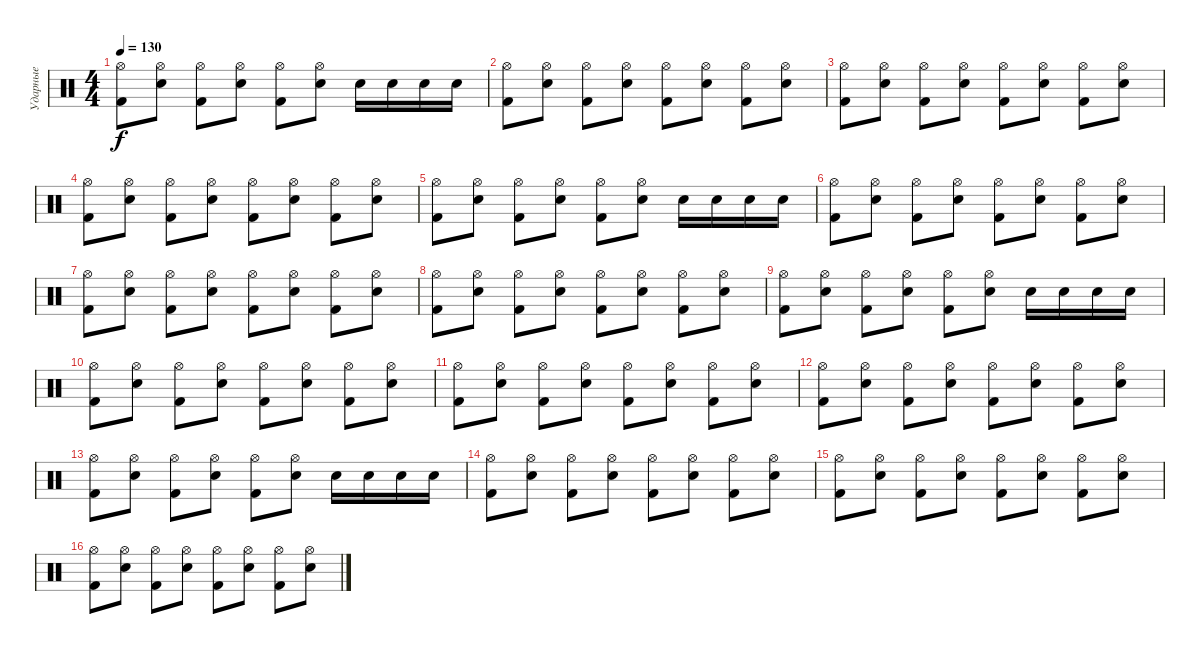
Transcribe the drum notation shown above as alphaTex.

\track ("Ударные" "Ударные") {instrument percussion}
\staff {score}
\articulation defaults
\ts (4 4)
\tempo 130
\clef neutral
\ks c
("Hi-Hat (open)" "Kick (hit) 2").8{dy f} ("Hi-Hat (open)" "Electric Snare (hit)").8 ("Hi-Hat (open)" "Kick (hit) 2").8 ("Hi-Hat (open)" "Electric Snare (hit)").8 ("Hi-Hat (open)" "Kick (hit) 2").8 ("Hi-Hat (open)" "Electric Snare (hit)").8 "Electric Snare (hit)".16 "Electric Snare (hit)".16 "Electric Snare (hit)".16 "Electric Snare (hit)".16 |
("Hi-Hat (open)" "Kick (hit) 2").8 ("Hi-Hat (open)" "Electric Snare (hit)").8 ("Hi-Hat (open)" "Kick (hit) 2").8 ("Hi-Hat (open)" "Electric Snare (hit)").8 ("Hi-Hat (open)" "Kick (hit) 2").8 ("Hi-Hat (open)" "Electric Snare (hit)").8 ("Hi-Hat (open)" "Kick (hit) 2").8 ("Hi-Hat (open)" "Electric Snare (hit)").8 |
("Hi-Hat (open)" "Kick (hit) 2").8 ("Hi-Hat (open)" "Electric Snare (hit)").8 ("Hi-Hat (open)" "Kick (hit) 2").8 ("Hi-Hat (open)" "Electric Snare (hit)").8 ("Hi-Hat (open)" "Kick (hit) 2").8 ("Hi-Hat (open)" "Electric Snare (hit)").8 ("Hi-Hat (open)" "Kick (hit) 2").8 ("Hi-Hat (open)" "Electric Snare (hit)").8 |
("Hi-Hat (open)" "Kick (hit) 2").8 ("Hi-Hat (open)" "Electric Snare (hit)").8 ("Hi-Hat (open)" "Kick (hit) 2").8 ("Hi-Hat (open)" "Electric Snare (hit)").8 ("Hi-Hat (open)" "Kick (hit) 2").8 ("Hi-Hat (open)" "Electric Snare (hit)").8 ("Hi-Hat (open)" "Kick (hit) 2").8 ("Hi-Hat (open)" "Electric Snare (hit)").8 |
("Hi-Hat (open)" "Kick (hit) 2").8 ("Hi-Hat (open)" "Electric Snare (hit)").8 ("Hi-Hat (open)" "Kick (hit) 2").8 ("Hi-Hat (open)" "Electric Snare (hit)").8 ("Hi-Hat (open)" "Kick (hit) 2").8 ("Hi-Hat (open)" "Electric Snare (hit)").8 "Electric Snare (hit)".16 "Electric Snare (hit)".16 "Electric Snare (hit)".16 "Electric Snare (hit)".16 |
("Hi-Hat (open)" "Kick (hit) 2").8 ("Hi-Hat (open)" "Electric Snare (hit)").8 ("Hi-Hat (open)" "Kick (hit) 2").8 ("Hi-Hat (open)" "Electric Snare (hit)").8 ("Hi-Hat (open)" "Kick (hit) 2").8 ("Hi-Hat (open)" "Electric Snare (hit)").8 ("Hi-Hat (open)" "Kick (hit) 2").8 ("Hi-Hat (open)" "Electric Snare (hit)").8 |
("Hi-Hat (open)" "Kick (hit) 2").8 ("Hi-Hat (open)" "Electric Snare (hit)").8 ("Hi-Hat (open)" "Kick (hit) 2").8 ("Hi-Hat (open)" "Electric Snare (hit)").8 ("Hi-Hat (open)" "Kick (hit) 2").8 ("Hi-Hat (open)" "Electric Snare (hit)").8 ("Hi-Hat (open)" "Kick (hit) 2").8 ("Hi-Hat (open)" "Electric Snare (hit)").8 |
("Hi-Hat (open)" "Kick (hit) 2").8 ("Hi-Hat (open)" "Electric Snare (hit)").8 ("Hi-Hat (open)" "Kick (hit) 2").8 ("Hi-Hat (open)" "Electric Snare (hit)").8 ("Hi-Hat (open)" "Kick (hit) 2").8 ("Hi-Hat (open)" "Electric Snare (hit)").8 ("Hi-Hat (open)" "Kick (hit) 2").8 ("Hi-Hat (open)" "Electric Snare (hit)").8 |
("Hi-Hat (open)" "Kick (hit) 2").8 ("Hi-Hat (open)" "Electric Snare (hit)").8 ("Hi-Hat (open)" "Kick (hit) 2").8 ("Hi-Hat (open)" "Electric Snare (hit)").8 ("Hi-Hat (open)" "Kick (hit) 2").8 ("Hi-Hat (open)" "Electric Snare (hit)").8 "Electric Snare (hit)".16 "Electric Snare (hit)".16 "Electric Snare (hit)".16 "Electric Snare (hit)".16 |
("Hi-Hat (open)" "Kick (hit) 2").8 ("Hi-Hat (open)" "Electric Snare (hit)").8 ("Hi-Hat (open)" "Kick (hit) 2").8 ("Hi-Hat (open)" "Electric Snare (hit)").8 ("Hi-Hat (open)" "Kick (hit) 2").8 ("Hi-Hat (open)" "Electric Snare (hit)").8 ("Hi-Hat (open)" "Kick (hit) 2").8 ("Hi-Hat (open)" "Electric Snare (hit)").8 |
("Hi-Hat (open)" "Kick (hit) 2").8 ("Hi-Hat (open)" "Electric Snare (hit)").8 ("Hi-Hat (open)" "Kick (hit) 2").8 ("Hi-Hat (open)" "Electric Snare (hit)").8 ("Hi-Hat (open)" "Kick (hit) 2").8 ("Hi-Hat (open)" "Electric Snare (hit)").8 ("Hi-Hat (open)" "Kick (hit) 2").8 ("Hi-Hat (open)" "Electric Snare (hit)").8 |
("Hi-Hat (open)" "Kick (hit) 2").8 ("Hi-Hat (open)" "Electric Snare (hit)").8 ("Hi-Hat (open)" "Kick (hit) 2").8 ("Hi-Hat (open)" "Electric Snare (hit)").8 ("Hi-Hat (open)" "Kick (hit) 2").8 ("Hi-Hat (open)" "Electric Snare (hit)").8 ("Hi-Hat (open)" "Kick (hit) 2").8 ("Hi-Hat (open)" "Electric Snare (hit)").8 |
("Hi-Hat (open)" "Kick (hit) 2").8 ("Hi-Hat (open)" "Electric Snare (hit)").8 ("Hi-Hat (open)" "Kick (hit) 2").8 ("Hi-Hat (open)" "Electric Snare (hit)").8 ("Hi-Hat (open)" "Kick (hit) 2").8 ("Hi-Hat (open)" "Electric Snare (hit)").8 "Electric Snare (hit)".16 "Electric Snare (hit)".16 "Electric Snare (hit)".16 "Electric Snare (hit)".16 |
("Hi-Hat (open)" "Kick (hit) 2").8 ("Hi-Hat (open)" "Electric Snare (hit)").8 ("Hi-Hat (open)" "Kick (hit) 2").8 ("Hi-Hat (open)" "Electric Snare (hit)").8 ("Hi-Hat (open)" "Kick (hit) 2").8 ("Hi-Hat (open)" "Electric Snare (hit)").8 ("Hi-Hat (open)" "Kick (hit) 2").8 ("Hi-Hat (open)" "Electric Snare (hit)").8 |
("Hi-Hat (open)" "Kick (hit) 2").8 ("Hi-Hat (open)" "Electric Snare (hit)").8 ("Hi-Hat (open)" "Kick (hit) 2").8 ("Hi-Hat (open)" "Electric Snare (hit)").8 ("Hi-Hat (open)" "Kick (hit) 2").8 ("Hi-Hat (open)" "Electric Snare (hit)").8 ("Hi-Hat (open)" "Kick (hit) 2").8 ("Hi-Hat (open)" "Electric Snare (hit)").8 |
("Hi-Hat (open)" "Kick (hit) 2").8 ("Hi-Hat (open)" "Electric Snare (hit)").8 ("Hi-Hat (open)" "Kick (hit) 2").8 ("Hi-Hat (open)" "Electric Snare (hit)").8 ("Hi-Hat (open)" "Kick (hit) 2").8 ("Hi-Hat (open)" "Electric Snare (hit)").8 ("Hi-Hat (open)" "Kick (hit) 2").8 ("Hi-Hat (open)" "Electric Snare (hit)").8
